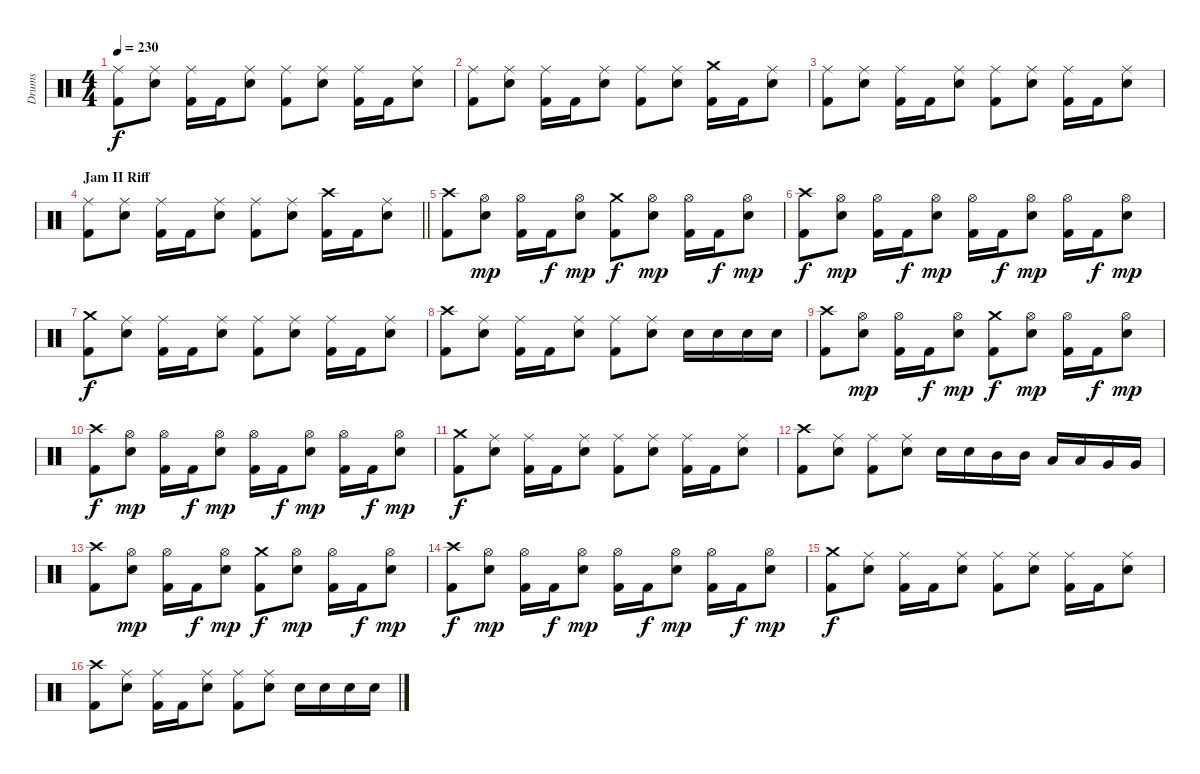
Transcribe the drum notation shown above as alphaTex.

\track ("Drums" "Drums") {instrument percussion}
\staff {score}
\articulation defaults
\ts (4 4)
\tempo 230
\clef neutral
\ks c
("Ride (middle)" "Kick (hit) 2").8{dy f} ("Ride (middle)" "Snare (hit) 2").8 ("Ride (middle)" "Kick (hit) 2").16 "Kick (hit) 2".16 ("Ride (middle)" "Snare (hit) 2").8 ("Ride (middle)" "Kick (hit) 2").8 ("Ride (middle)" "Snare (hit) 2").8 ("Ride (middle)" "Kick (hit) 2").16 "Kick (hit) 2".16 ("Ride (middle)" "Snare (hit) 2").8 |
("Ride (middle)" "Kick (hit) 2").8 ("Ride (middle)" "Snare (hit) 2").8 ("Ride (middle)" "Kick (hit) 2").16 "Kick (hit) 2".16 ("Ride (middle)" "Snare (hit) 2").8 ("Ride (middle)" "Kick (hit) 2").8 ("Ride (middle)" "Snare (hit) 2").8 ("Crash medium (hit)" "Kick (hit) 2").16 "Kick (hit) 2".16 ("Ride (middle)" "Snare (hit) 2").8 |
("Ride (middle)" "Kick (hit) 2").8 ("Ride (middle)" "Snare (hit) 2").8 ("Ride (middle)" "Kick (hit) 2").16 "Kick (hit) 2".16 ("Ride (middle)" "Snare (hit) 2").8 ("Ride (middle)" "Kick (hit) 2").8 ("Ride (middle)" "Snare (hit) 2").8 ("Ride (middle)" "Kick (hit) 2").16 "Kick (hit) 2".16 ("Ride (middle)" "Snare (hit) 2").8 |
\section ("" "Jam II Riff")
\barLineRight lightlight
("Ride (middle)" "Kick (hit) 2").8 ("Ride (middle)" "Snare (hit) 2").8 ("Ride (middle)" "Kick (hit) 2").16 "Kick (hit) 2".16 ("Ride (middle)" "Snare (hit) 2").8 ("Ride (middle)" "Kick (hit) 2").8 ("Ride (middle)" "Snare (hit) 2").8 ("Crash high (hit)" "Kick (hit) 2").16 "Kick (hit) 2".16 ("Ride (middle)" "Snare (hit) 2").8 |
("Crash high (hit)" "Kick (hit) 2").8 ("Hi-Hat (open)" "Snare (hit) 2").8{dy mp} ("Hi-Hat (open)" "Kick (hit) 2").16 "Kick (hit) 2".16{dy f} ("Hi-Hat (open)" "Snare (hit) 2").8{dy mp} ("Crash medium (hit)" "Kick (hit) 2").8{dy f} ("Hi-Hat (open)" "Snare (hit) 2").8{dy mp} ("Hi-Hat (open)" "Kick (hit) 2").16 "Kick (hit) 2".16{dy f} ("Hi-Hat (open)" "Snare (hit) 2").8{dy mp} |
("Crash high (hit)" "Kick (hit) 2").8{dy f} ("Hi-Hat (open)" "Snare (hit) 2").8{dy mp} ("Hi-Hat (open)" "Kick (hit) 2").16 "Kick (hit) 2".16{dy f} ("Hi-Hat (open)" "Snare (hit) 2").8{dy mp} ("Hi-Hat (open)" "Kick (hit) 2").16 "Kick (hit) 2".16{dy f} ("Hi-Hat (open)" "Snare (hit) 2").8{dy mp} ("Hi-Hat (open)" "Kick (hit) 2").16 "Kick (hit) 2".16{dy f} ("Hi-Hat (open)" "Snare (hit) 2").8{dy mp} |
("Crash medium (hit)" "Kick (hit) 2").8{dy f} ("Ride (middle)" "Snare (hit) 2").8 ("Ride (middle)" "Kick (hit) 2").16 "Kick (hit) 2".16 ("Ride (middle)" "Snare (hit) 2").8 ("Ride (middle)" "Kick (hit) 2").8 ("Ride (middle)" "Snare (hit) 2").8 ("Ride (middle)" "Kick (hit) 2").16 "Kick (hit) 2".16 ("Ride (middle)" "Snare (hit) 2").8 |
("Crash high (hit)" "Kick (hit) 2").8 ("Ride (middle)" "Snare (hit) 2").8 ("Ride (middle)" "Kick (hit) 2").16 "Kick (hit) 2".16 ("Ride (middle)" "Snare (hit) 2").8 ("Ride (middle)" "Kick (hit) 2").8 ("Ride (middle)" "Snare (hit) 2").8 "Snare (hit) 2".16 "Snare (hit) 2".16 "Snare (hit) 2".16 "Snare (hit) 2".16 |
("Crash high (hit)" "Kick (hit) 2").8 ("Hi-Hat (open)" "Snare (hit) 2").8{dy mp} ("Hi-Hat (open)" "Kick (hit) 2").16 "Kick (hit) 2".16{dy f} ("Hi-Hat (open)" "Snare (hit) 2").8{dy mp} ("Crash medium (hit)" "Kick (hit) 2").8{dy f} ("Hi-Hat (open)" "Snare (hit) 2").8{dy mp} ("Hi-Hat (open)" "Kick (hit) 2").16 "Kick (hit) 2".16{dy f} ("Hi-Hat (open)" "Snare (hit) 2").8{dy mp} |
("Crash high (hit)" "Kick (hit) 2").8{dy f} ("Hi-Hat (open)" "Snare (hit) 2").8{dy mp} ("Hi-Hat (open)" "Kick (hit) 2").16 "Kick (hit) 2".16{dy f} ("Hi-Hat (open)" "Snare (hit) 2").8{dy mp} ("Hi-Hat (open)" "Kick (hit) 2").16 "Kick (hit) 2".16{dy f} ("Hi-Hat (open)" "Snare (hit) 2").8{dy mp} ("Hi-Hat (open)" "Kick (hit) 2").16 "Kick (hit) 2".16{dy f} ("Hi-Hat (open)" "Snare (hit) 2").8{dy mp} |
("Crash medium (hit)" "Kick (hit) 2").8{dy f} ("Ride (middle)" "Snare (hit) 2").8 ("Ride (middle)" "Kick (hit) 2").16 "Kick (hit) 2".16 ("Ride (middle)" "Snare (hit) 2").8 ("Ride (middle)" "Kick (hit) 2").8 ("Ride (middle)" "Snare (hit) 2").8 ("Ride (middle)" "Kick (hit) 2").16 "Kick (hit) 2".16 ("Ride (middle)" "Snare (hit) 2").8 |
("Crash high (hit)" "Kick (hit) 2").8 ("Ride (middle)" "Snare (hit) 2").8 ("Ride (middle)" "Kick (hit) 2").8 ("Ride (middle)" "Snare (hit) 2").8 "Snare (hit) 2".16 "Snare (hit) 2".16 "Mid Tom (hit)".16 "Mid Tom (hit)".16 "Low Tom (hit)".16 "Low Tom (hit)".16 "Very Low Tom (hit)".16 "Very Low Tom (hit)".16 |
("Crash high (hit)" "Kick (hit) 2").8 ("Hi-Hat (open)" "Snare (hit) 2").8{dy mp} ("Hi-Hat (open)" "Kick (hit) 2").16 "Kick (hit) 2".16{dy f} ("Hi-Hat (open)" "Snare (hit) 2").8{dy mp} ("Crash medium (hit)" "Kick (hit) 2").8{dy f} ("Hi-Hat (open)" "Snare (hit) 2").8{dy mp} ("Hi-Hat (open)" "Kick (hit) 2").16 "Kick (hit) 2".16{dy f} ("Hi-Hat (open)" "Snare (hit) 2").8{dy mp} |
("Crash high (hit)" "Kick (hit) 2").8{dy f} ("Hi-Hat (open)" "Snare (hit) 2").8{dy mp} ("Hi-Hat (open)" "Kick (hit) 2").16 "Kick (hit) 2".16{dy f} ("Hi-Hat (open)" "Snare (hit) 2").8{dy mp} ("Hi-Hat (open)" "Kick (hit) 2").16 "Kick (hit) 2".16{dy f} ("Hi-Hat (open)" "Snare (hit) 2").8{dy mp} ("Hi-Hat (open)" "Kick (hit) 2").16 "Kick (hit) 2".16{dy f} ("Hi-Hat (open)" "Snare (hit) 2").8{dy mp} |
("Crash medium (hit)" "Kick (hit) 2").8{dy f} ("Ride (middle)" "Snare (hit) 2").8 ("Ride (middle)" "Kick (hit) 2").16 "Kick (hit) 2".16 ("Ride (middle)" "Snare (hit) 2").8 ("Ride (middle)" "Kick (hit) 2").8 ("Ride (middle)" "Snare (hit) 2").8 ("Ride (middle)" "Kick (hit) 2").16 "Kick (hit) 2".16 ("Ride (middle)" "Snare (hit) 2").8 |
("Crash high (hit)" "Kick (hit) 2").8 ("Ride (middle)" "Snare (hit) 2").8 ("Ride (middle)" "Kick (hit) 2").16 "Kick (hit) 2".16 ("Ride (middle)" "Snare (hit) 2").8 ("Ride (middle)" "Kick (hit) 2").8 ("Ride (middle)" "Snare (hit) 2").8 "Snare (hit) 2".16 "Snare (hit) 2".16 "Snare (hit) 2".16 "Snare (hit) 2".16
